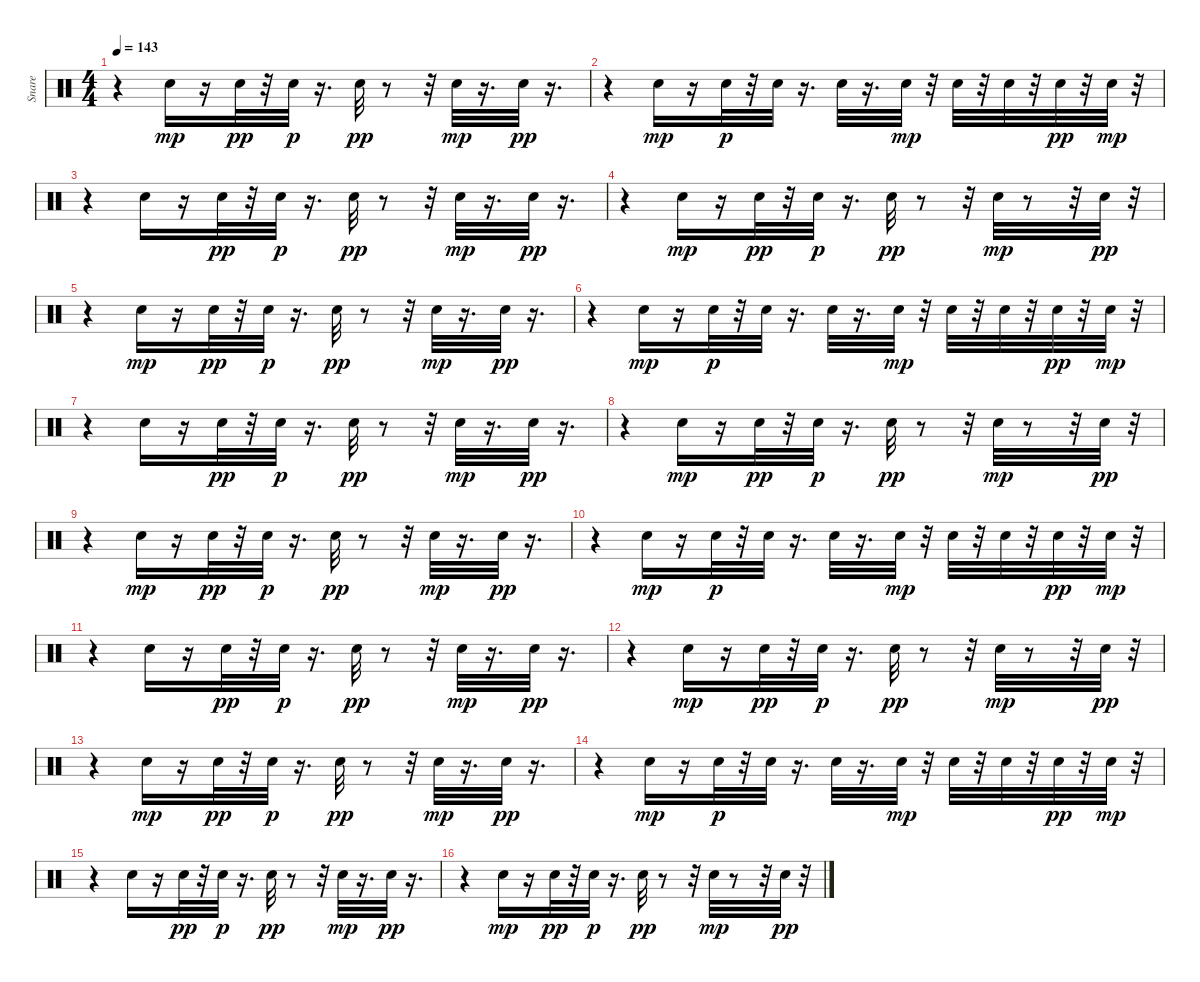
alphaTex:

\track ("Snare    " "Snare    ") {instrument percussion}
\staff {score}
\articulation defaults
\ts (4 4)
\tempo 143
\clef neutral
\ks c
r.4{dy pp} "Electric Snare (hit)".16{dy mp} r.16 "Electric Snare (hit)".32{dy pp} r.32 "Snare (hit) 2".32{dy p} r.16{d} "Electric Snare (hit)".32{dy pp} r.8 r.32 "Electric Snare (hit)".32{dy mp} r.16{d} "Electric Snare (hit)".32{dy pp} r.16{d} |
r.4 "Electric Snare (hit)".16{dy mp} r.16 "Electric Snare (hit)".32{dy p} r.32 "Snare (hit) 2".32 r.16{d} "Snare (hit) 2".32 r.16{d} "Snare (hit) 2".32{dy mp} r.32 "Electric Snare (hit)".32 r.32 "Snare (hit) 2".32 r.32 "Snare (hit) 2".32{dy pp} r.32 "Snare (hit) 2".32{dy mp} r.32 |
r.4 "Electric Snare (hit)".16 r.16 "Electric Snare (hit)".32{dy pp} r.32 "Snare (hit) 2".32{dy p} r.16{d} "Electric Snare (hit)".32{dy pp} r.8 r.32 "Electric Snare (hit)".32{dy mp} r.16{d} "Electric Snare (hit)".32{dy pp} r.16{d} |
r.4 "Electric Snare (hit)".16{dy mp} r.16 "Electric Snare (hit)".32{dy pp} r.32 "Snare (hit) 2".32{dy p} r.16{d} "Electric Snare (hit)".32{dy pp} r.8 r.32 "Electric Snare (hit)".32{dy mp} r.8 r.32 "Electric Snare (hit)".32{dy pp} r.32 |
r.4 "Electric Snare (hit)".16{dy mp} r.16 "Electric Snare (hit)".32{dy pp} r.32 "Snare (hit) 2".32{dy p} r.16{d} "Electric Snare (hit)".32{dy pp} r.8 r.32 "Electric Snare (hit)".32{dy mp} r.16{d} "Electric Snare (hit)".32{dy pp} r.16{d} |
r.4 "Electric Snare (hit)".16{dy mp} r.16 "Electric Snare (hit)".32{dy p} r.32 "Snare (hit) 2".32 r.16{d} "Snare (hit) 2".32 r.16{d} "Snare (hit) 2".32{dy mp} r.32 "Electric Snare (hit)".32 r.32 "Snare (hit) 2".32 r.32 "Snare (hit) 2".32{dy pp} r.32 "Snare (hit) 2".32{dy mp} r.32 |
r.4 "Electric Snare (hit)".16 r.16 "Electric Snare (hit)".32{dy pp} r.32 "Snare (hit) 2".32{dy p} r.16{d} "Electric Snare (hit)".32{dy pp} r.8 r.32 "Electric Snare (hit)".32{dy mp} r.16{d} "Electric Snare (hit)".32{dy pp} r.16{d} |
r.4 "Electric Snare (hit)".16{dy mp} r.16 "Electric Snare (hit)".32{dy pp} r.32 "Snare (hit) 2".32{dy p} r.16{d} "Electric Snare (hit)".32{dy pp} r.8 r.32 "Electric Snare (hit)".32{dy mp} r.8 r.32 "Electric Snare (hit)".32{dy pp} r.32 |
r.4 "Electric Snare (hit)".16{dy mp} r.16 "Electric Snare (hit)".32{dy pp} r.32 "Snare (hit) 2".32{dy p} r.16{d} "Electric Snare (hit)".32{dy pp} r.8 r.32 "Electric Snare (hit)".32{dy mp} r.16{d} "Electric Snare (hit)".32{dy pp} r.16{d} |
r.4 "Electric Snare (hit)".16{dy mp} r.16 "Electric Snare (hit)".32{dy p} r.32 "Snare (hit) 2".32 r.16{d} "Snare (hit) 2".32 r.16{d} "Snare (hit) 2".32{dy mp} r.32 "Electric Snare (hit)".32 r.32 "Snare (hit) 2".32 r.32 "Snare (hit) 2".32{dy pp} r.32 "Snare (hit) 2".32{dy mp} r.32 |
r.4 "Electric Snare (hit)".16 r.16 "Electric Snare (hit)".32{dy pp} r.32 "Snare (hit) 2".32{dy p} r.16{d} "Electric Snare (hit)".32{dy pp} r.8 r.32 "Electric Snare (hit)".32{dy mp} r.16{d} "Electric Snare (hit)".32{dy pp} r.16{d} |
r.4 "Electric Snare (hit)".16{dy mp} r.16 "Electric Snare (hit)".32{dy pp} r.32 "Snare (hit) 2".32{dy p} r.16{d} "Electric Snare (hit)".32{dy pp} r.8 r.32 "Electric Snare (hit)".32{dy mp} r.8 r.32 "Electric Snare (hit)".32{dy pp} r.32 |
r.4 "Electric Snare (hit)".16{dy mp} r.16 "Electric Snare (hit)".32{dy pp} r.32 "Snare (hit) 2".32{dy p} r.16{d} "Electric Snare (hit)".32{dy pp} r.8 r.32 "Electric Snare (hit)".32{dy mp} r.16{d} "Electric Snare (hit)".32{dy pp} r.16{d} |
r.4 "Electric Snare (hit)".16{dy mp} r.16 "Electric Snare (hit)".32{dy p} r.32 "Snare (hit) 2".32 r.16{d} "Snare (hit) 2".32 r.16{d} "Snare (hit) 2".32{dy mp} r.32 "Electric Snare (hit)".32 r.32 "Snare (hit) 2".32 r.32 "Snare (hit) 2".32{dy pp} r.32 "Snare (hit) 2".32{dy mp} r.32 |
r.4 "Electric Snare (hit)".16 r.16 "Electric Snare (hit)".32{dy pp} r.32 "Snare (hit) 2".32{dy p} r.16{d} "Electric Snare (hit)".32{dy pp} r.8 r.32 "Electric Snare (hit)".32{dy mp} r.16{d} "Electric Snare (hit)".32{dy pp} r.16{d} |
r.4 "Electric Snare (hit)".16{dy mp} r.16 "Electric Snare (hit)".32{dy pp} r.32 "Snare (hit) 2".32{dy p} r.16{d} "Electric Snare (hit)".32{dy pp} r.8 r.32 "Electric Snare (hit)".32{dy mp} r.8 r.32 "Electric Snare (hit)".32{dy pp} r.32
